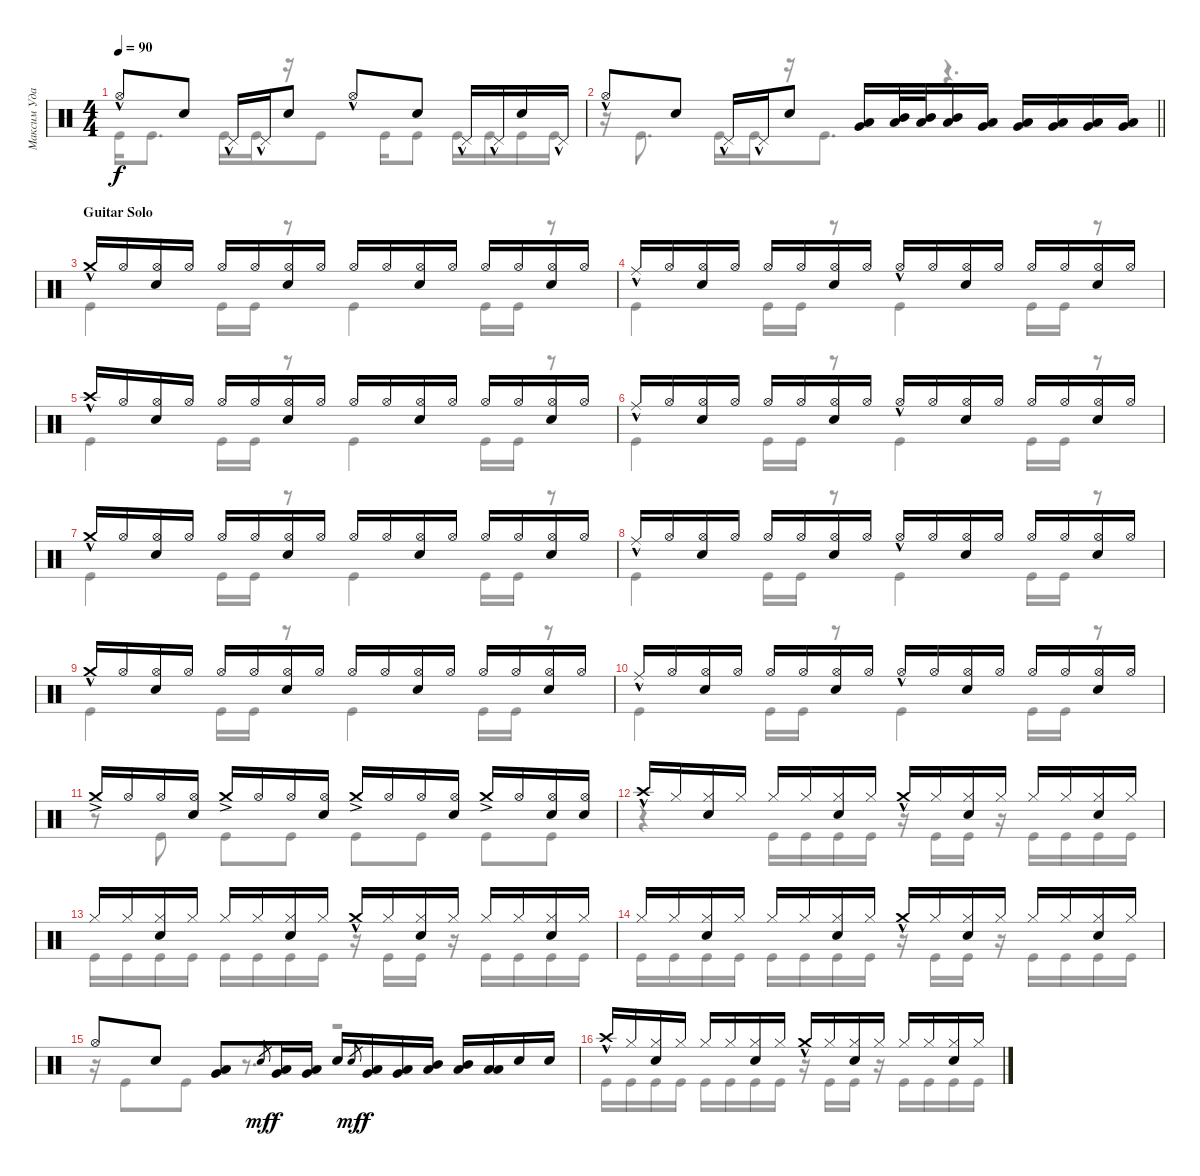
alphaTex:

\track ("Максим Удалов" "Максим Уда") {instrument percussion}
\staff {score}
\articulation defaults
\voice
\ts (4 4)
\tempo 90
\clef neutral
\ks c "Hi-Hat (open)"{hac}.8{dy f} "Snare (hit) 2".8 "Pedal Hi-Hat (hit)"{hac}.16 "Pedal Hi-Hat (hit)"{hac}.16 "Snare (hit) 2".8 "Hi-Hat (open)"{hac}.8 "Snare (hit) 2".8 "Pedal Hi-Hat (hit)"{hac}.16 "Pedal Hi-Hat (hit)"{hac}.16 "Snare (hit) 2".16 "Pedal Hi-Hat (hit)"{hac}.16
|
\barLineRight lightlight "Hi-Hat (open)"{hac}.8 "Snare (hit) 2".8 "Pedal Hi-Hat (hit)"{hac}.16 "Pedal Hi-Hat (hit)"{hac}.16 "Snare (hit) 2".8
("Low Tom (hit)" "Very Low Tom (hit)").16 ("Low Tom (hit)" "Mid Tom (hit)").32 ("Low Tom (hit)" "Mid Tom (hit)").32 ("Low Tom (hit)" "Mid Tom (hit)").16 ("Low Tom (hit)" "Very Low Tom (hit)").16 ("Low Tom (hit)" "Very Low Tom (hit)").16 ("Very Low Tom (hit)" "Low Floor Tom (hit)").16 ("Very Low Tom (hit)" "Low Floor Tom (hit)").16 ("Very Low Tom (hit)" "Low Floor Tom (hit)").16 |
\section ("" "Guitar Solo")
"Crash medium (hit)"{hac}.16 "Hi-Hat (open)".16 ("Hi-Hat (open)" "Snare (hit) 2").16 "Hi-Hat (open)".16 "Hi-Hat (open)".16 "Hi-Hat (open)".16 ("Hi-Hat (open)" "Snare (hit) 2").16 "Hi-Hat (open)".16 "Hi-Hat (open)".16 "Hi-Hat (open)".16 ("Hi-Hat (open)" "Snare (hit) 2").16 "Hi-Hat (open)".16 "Hi-Hat (open)".16 "Hi-Hat (open)".16 ("Hi-Hat (open)" "Snare (hit) 2").16 "Hi-Hat (open)".16 |
"Ride (middle)"{hac}.16 "Hi-Hat (open)".16 ("Hi-Hat (open)" "Snare (hit) 2").16 "Hi-Hat (open)".16 "Hi-Hat (open)".16 "Hi-Hat (open)".16 ("Hi-Hat (open)" "Snare (hit) 2").16 "Hi-Hat (open)".16 "Hi-Hat (open)"{hac}.16 "Hi-Hat (open)".16 ("Hi-Hat (open)" "Snare (hit) 2").16 "Hi-Hat (open)".16 "Hi-Hat (open)".16 "Hi-Hat (open)".16 ("Hi-Hat (open)" "Snare (hit) 2").16 "Hi-Hat (open)".16 |
"Crash high (hit)"{hac}.16 "Hi-Hat (open)".16 ("Hi-Hat (open)" "Snare (hit) 2").16 "Hi-Hat (open)".16 "Hi-Hat (open)".16 "Hi-Hat (open)".16 ("Hi-Hat (open)" "Snare (hit) 2").16 "Hi-Hat (open)".16 "Hi-Hat (open)".16 "Hi-Hat (open)".16 ("Hi-Hat (open)" "Snare (hit) 2").16 "Hi-Hat (open)".16 "Hi-Hat (open)".16 "Hi-Hat (open)".16 ("Hi-Hat (open)" "Snare (hit) 2").16 "Hi-Hat (open)".16 |
"Ride (middle)"{hac}.16 "Hi-Hat (open)".16 ("Hi-Hat (open)" "Snare (hit) 2").16 "Hi-Hat (open)".16 "Hi-Hat (open)".16 "Hi-Hat (open)".16 ("Hi-Hat (open)" "Snare (hit) 2").16 "Hi-Hat (open)".16 "Hi-Hat (open)"{hac}.16 "Hi-Hat (open)".16 ("Hi-Hat (open)" "Snare (hit) 2").16 "Hi-Hat (open)".16 "Hi-Hat (open)".16 "Hi-Hat (open)".16 ("Hi-Hat (open)" "Snare (hit) 2").16 "Hi-Hat (open)".16 |
"Crash medium (hit)"{hac}.16 "Hi-Hat (open)".16 ("Hi-Hat (open)" "Snare (hit) 2").16 "Hi-Hat (open)".16 "Hi-Hat (open)".16 "Hi-Hat (open)".16 ("Hi-Hat (open)" "Snare (hit) 2").16 "Hi-Hat (open)".16 "Hi-Hat (open)".16 "Hi-Hat (open)".16 ("Hi-Hat (open)" "Snare (hit) 2").16 "Hi-Hat (open)".16 "Hi-Hat (open)".16 "Hi-Hat (open)".16 ("Hi-Hat (open)" "Snare (hit) 2").16 "Hi-Hat (open)".16 |
"Ride (middle)"{hac}.16 "Hi-Hat (open)".16 ("Hi-Hat (open)" "Snare (hit) 2").16 "Hi-Hat (open)".16 "Hi-Hat (open)".16 "Hi-Hat (open)".16 ("Hi-Hat (open)" "Snare (hit) 2").16 "Hi-Hat (open)".16 "Hi-Hat (open)"{hac}.16 "Hi-Hat (open)".16 ("Hi-Hat (open)" "Snare (hit) 2").16 "Hi-Hat (open)".16 "Hi-Hat (open)".16 "Hi-Hat (open)".16 ("Hi-Hat (open)" "Snare (hit) 2").16 "Hi-Hat (open)".16 |
"Crash medium (hit)"{hac}.16 "Hi-Hat (open)".16 ("Hi-Hat (open)" "Snare (hit) 2").16 "Hi-Hat (open)".16 "Hi-Hat (open)".16 "Hi-Hat (open)".16 ("Hi-Hat (open)" "Snare (hit) 2").16 "Hi-Hat (open)".16 "Hi-Hat (open)".16 "Hi-Hat (open)".16 ("Hi-Hat (open)" "Snare (hit) 2").16 "Hi-Hat (open)".16 "Hi-Hat (open)".16 "Hi-Hat (open)".16 ("Hi-Hat (open)" "Snare (hit) 2").16 "Hi-Hat (open)".16 |
"Ride (middle)"{hac}.16 "Hi-Hat (open)".16 ("Hi-Hat (open)" "Snare (hit) 2").16 "Hi-Hat (open)".16 "Hi-Hat (open)".16 "Hi-Hat (open)".16 ("Hi-Hat (open)" "Snare (hit) 2").16 "Hi-Hat (open)".16 "Hi-Hat (open)"{hac}.16 "Hi-Hat (open)".16 ("Hi-Hat (open)" "Snare (hit) 2").16 "Hi-Hat (open)".16 "Hi-Hat (open)".16 "Hi-Hat (open)".16 ("Hi-Hat (open)" "Snare (hit) 2").16 "Hi-Hat (open)".16 |
"Crash medium (hit)"{ac}.16 "Hi-Hat (open)".16 "Hi-Hat (open)".16 ("Hi-Hat (open)" "Snare (hit) 2").16 "Crash medium (hit)"{ac}.16 "Hi-Hat (open)".16 "Hi-Hat (open)".16 ("Hi-Hat (open)" "Snare (hit) 2").16 "Crash medium (hit)"{ac}.16 "Hi-Hat (open)".16 "Hi-Hat (open)".16 ("Hi-Hat (open)" "Snare (hit) 2").16 "Crash medium (hit)"{ac}.16 "Hi-Hat (open)".16 ("Hi-Hat (open)" "Snare (hit) 2").16 ("Hi-Hat (open)" "Snare (hit) 2").16 |
"Crash high (hit)"{hac}.16 "Hi-Hat (closed)".16 ("Hi-Hat (closed)" "Snare (hit) 2").16 "Hi-Hat (closed)".16 "Hi-Hat (closed)".16 "Hi-Hat (closed)".16 ("Hi-Hat (closed)" "Snare (hit) 2").16 "Hi-Hat (closed)".16 "Crash medium (hit)"{hac}.16 "Hi-Hat (closed)".16 ("Hi-Hat (closed)" "Snare (hit) 2").16 "Hi-Hat (closed)".16 "Hi-Hat (closed)".16 "Hi-Hat (closed)".16 ("Hi-Hat (closed)" "Snare (hit) 2").16 "Hi-Hat (closed)".16 |
"Hi-Hat (closed)".16 "Hi-Hat (closed)".16 ("Hi-Hat (closed)" "Snare (hit) 2").16 "Hi-Hat (closed)".16 "Hi-Hat (closed)".16 "Hi-Hat (closed)".16 ("Hi-Hat (closed)" "Snare (hit) 2").16 "Hi-Hat (closed)".16 "Crash medium (hit)"{hac}.16 "Hi-Hat (closed)".16 ("Hi-Hat (closed)" "Snare (hit) 2").16 "Hi-Hat (closed)".16 "Hi-Hat (closed)".16 "Hi-Hat (closed)".16 ("Hi-Hat (closed)" "Snare (hit) 2").16 "Hi-Hat (closed)".16 |
"Hi-Hat (closed)".16 "Hi-Hat (closed)".16 ("Hi-Hat (closed)" "Snare (hit) 2").16 "Hi-Hat (closed)".16 "Hi-Hat (closed)".16 "Hi-Hat (closed)".16 ("Hi-Hat (closed)" "Snare (hit) 2").16 "Hi-Hat (closed)".16 "Crash medium (hit)"{hac}.16 "Hi-Hat (closed)".16 ("Hi-Hat (closed)" "Snare (hit) 2").16 "Hi-Hat (closed)".16 "Hi-Hat (closed)".16 "Hi-Hat (closed)".16 ("Hi-Hat (closed)" "Snare (hit) 2").16 "Hi-Hat (closed)".16 |
"Hi-Hat (open)".8 "Snare (hit) 2".8 ("Very Low Tom (hit)" "Low Tom (hit)").8 "Snare (hit)".8{gr dy mf} ("Low Tom (hit)" "Very Low Tom (hit)").16{dy f} ("Very Low Tom (hit)" "Low Tom (hit)").16 "Snare (hit) 2".16 "Snare (hit)".8{gr dy mf} ("Very Low Tom (hit)" "Low Tom (hit)").16{dy f} ("Low Tom (hit)" "Very Low Tom (hit)").16 ("Low Floor Tom (hit)" "Mid Tom (hit)").16 ("Mid Tom (hit)" "Low Floor Tom (hit)").16 ("Low Tom (hit)" "Low Floor Tom (hit)").16 "Snare (hit) 2".16 "Snare (hit) 2".16 |
"Crash high (hit)"{hac}.16 "Hi-Hat (closed)".16 ("Hi-Hat (closed)" "Snare (hit) 2").16 "Hi-Hat (closed)".16 "Hi-Hat (closed)".16 "Hi-Hat (closed)".16 ("Hi-Hat (closed)" "Snare (hit) 2").16 "Hi-Hat (closed)".16 "Crash medium (hit)"{hac}.16 "Hi-Hat (closed)".16 ("Hi-Hat (closed)" "Snare (hit) 2").16 "Hi-Hat (closed)".16 "Hi-Hat (closed)".16 "Hi-Hat (closed)".16 ("Hi-Hat (closed)" "Snare (hit) 2").16 "Hi-Hat (closed)".16
\voice
\clef neutral
\ottava regular
\simile none
\ks c "Kick (hit)".16{dy f} "Kick (hit)".8{d} "Kick (hit)".16 "Kick (hit)".16
r.16 "Kick (hit)".8 "Kick (hit)".16 "Kick (hit)".8 "Kick (hit)".16 "Kick (hit)".16 "Kick (hit)".16 "Kick (hit)".16 |
\barLineRight lightlight
r.16 "Kick (hit)".8{d} "Kick (hit)".16 "Kick (hit)".16 r.16 "Kick (hit)".8{d} r.4{d} |
"Kick (hit)".4 "Kick (hit)".16 "Kick (hit)".16 r.8 "Kick (hit)".4 "Kick (hit)".16 "Kick (hit)".16 r.8 |
"Kick (hit)".4 "Kick (hit)".16 "Kick (hit)".16 r.8 "Kick (hit)".4 "Kick (hit)".16 "Kick (hit)".16 r.8 |
"Kick (hit)".4 "Kick (hit)".16 "Kick (hit)".16 r.8 "Kick (hit)".4 "Kick (hit)".16 "Kick (hit)".16 r.8 |
"Kick (hit)".4 "Kick (hit)".16 "Kick (hit)".16 r.8 "Kick (hit)".4 "Kick (hit)".16 "Kick (hit)".16 r.8 |
"Kick (hit)".4 "Kick (hit)".16 "Kick (hit)".16 r.8 "Kick (hit)".4 "Kick (hit)".16 "Kick (hit)".16 r.8 |
"Kick (hit)".4 "Kick (hit)".16 "Kick (hit)".16 r.8 "Kick (hit)".4 "Kick (hit)".16 "Kick (hit)".16 r.8 |
"Kick (hit)".4 "Kick (hit)".16 "Kick (hit)".16 r.8 "Kick (hit)".4 "Kick (hit)".16 "Kick (hit)".16 r.8 |
"Kick (hit)".4 "Kick (hit)".16 "Kick (hit)".16 r.8 "Kick (hit)".4 "Kick (hit)".16 "Kick (hit)".16 r.8 |
r.8 "Kick (hit)".8 "Kick (hit)".8 "Kick (hit)".8 "Kick (hit)".8 "Kick (hit)".8 "Kick (hit)".8 "Kick (hit)".8 |
r.4 "Kick (hit)".16 "Kick (hit)".16 "Kick (hit)".16 "Kick (hit)".16 r.16 "Kick (hit)".16 "Kick (hit)".16 r.16 "Kick (hit)".16 "Kick (hit)".16 "Kick (hit)".16 "Kick (hit)".16 |
"Kick (hit)".16 "Kick (hit)".16 "Kick (hit)".16 "Kick (hit)".16 "Kick (hit)".16 "Kick (hit)".16 "Kick (hit)".16 "Kick (hit)".16 r.16 "Kick (hit)".16 "Kick (hit)".16 r.16 "Kick (hit)".16 "Kick (hit)".16 "Kick (hit)".16 "Kick (hit)".16 |
"Kick (hit)".16 "Kick (hit)".16 "Kick (hit)".16 "Kick (hit)".16 "Kick (hit)".16 "Kick (hit)".16 "Kick (hit)".16 "Kick (hit)".16 r.16 "Kick (hit)".16 "Kick (hit)".16 r.16 "Kick (hit)".16 "Kick (hit)".16 "Kick (hit)".16 "Kick (hit)".16 |
r.16 "Kick (hit)".8 "Kick (hit)".8 r.8{d} r.2 |
"Kick (hit)".16 "Kick (hit)".16 "Kick (hit)".16 "Kick (hit)".16 "Kick (hit)".16 "Kick (hit)".16 "Kick (hit)".16 "Kick (hit)".16 r.16 "Kick (hit)".16 "Kick (hit)".16 r.16 "Kick (hit)".16 "Kick (hit)".16 "Kick (hit)".16 "Kick (hit)".16
